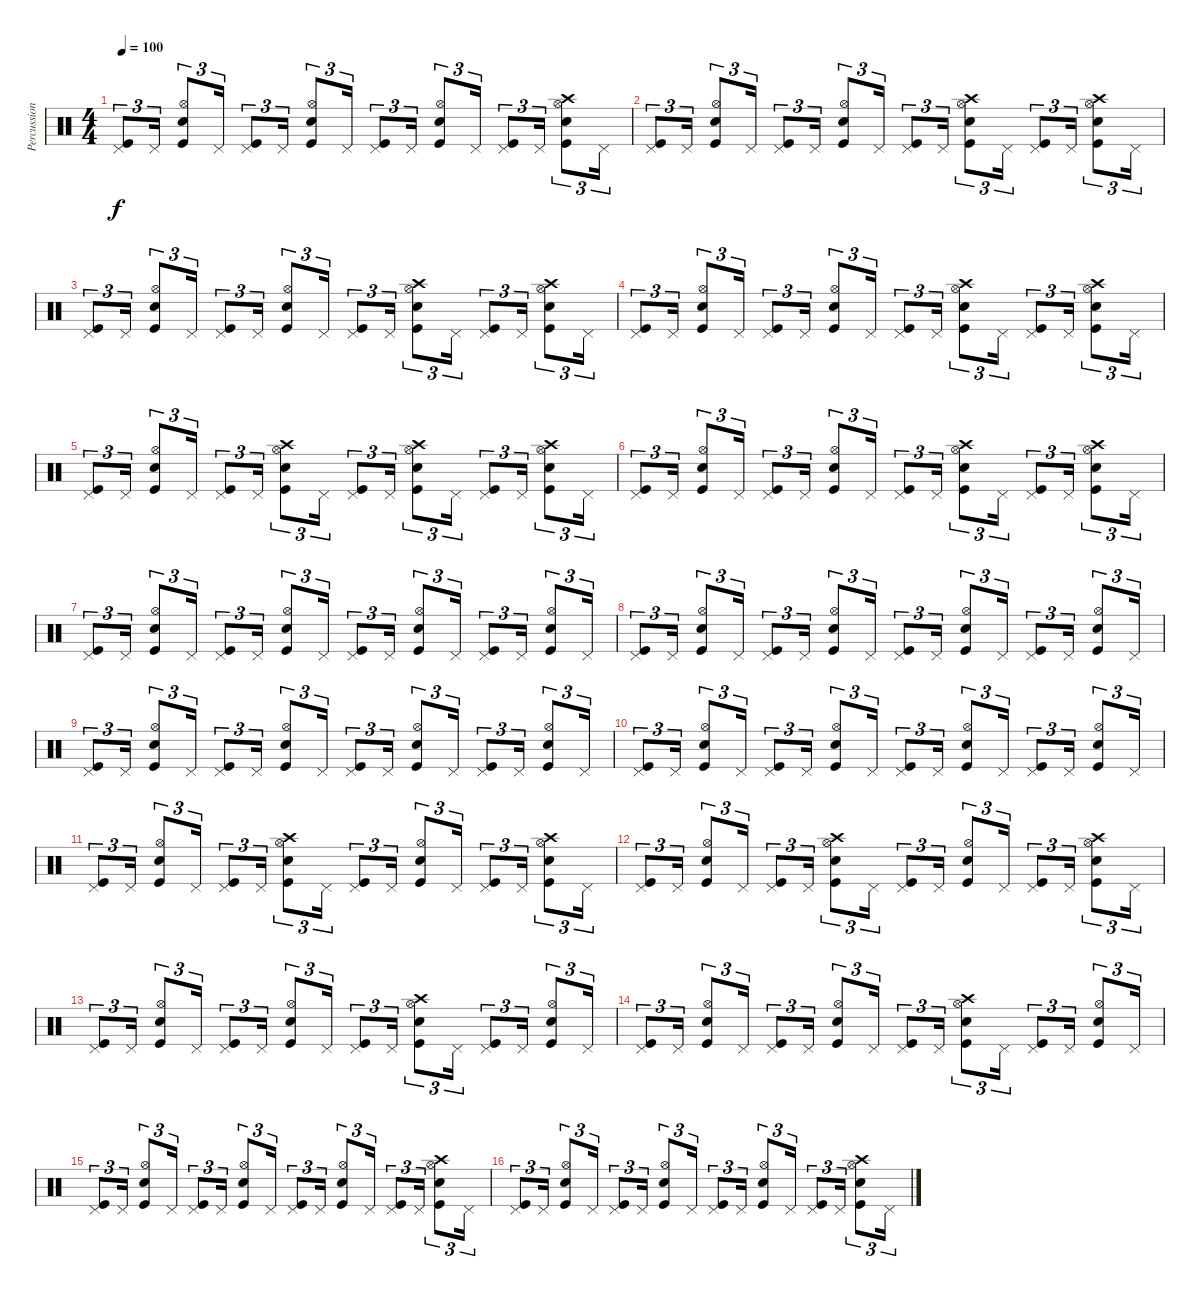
\track ("Percussion" "Percussion") {instrument percussion}
\staff {score}
\articulation defaults
\ts (4 4)
\tempo 100
\clef neutral
\ks c
("Pedal Hi-Hat (hit)" "Kick (hit)").8{tu (3 2) dy f} "Pedal Hi-Hat (hit)".16{tu (3 2)} ("Hi-Hat (open)" "Electric Snare (hit)" "Kick (hit)").8{tu (3 2)} "Pedal Hi-Hat (hit)".16{tu (3 2)} ("Pedal Hi-Hat (hit)" "Kick (hit)").8{tu (3 2)} "Pedal Hi-Hat (hit)".16{tu (3 2)} ("Hi-Hat (open)" "Electric Snare (hit)" "Kick (hit)").8{tu (3 2)} "Pedal Hi-Hat (hit)".16{tu (3 2)} ("Pedal Hi-Hat (hit)" "Kick (hit)").8{tu (3 2)} "Pedal Hi-Hat (hit)".16{tu (3 2)} ("Hi-Hat (open)" "Electric Snare (hit)" "Kick (hit)").8{tu (3 2)} "Pedal Hi-Hat (hit)".16{tu (3 2)} ("Pedal Hi-Hat (hit)" "Kick (hit)").8{tu (3 2)} "Pedal Hi-Hat (hit)".16{tu (3 2)} ("Crash high (hit)" "Hi-Hat (open)" "Electric Snare (hit)" "Kick (hit)").8{tu (3 2)} "Pedal Hi-Hat (hit)".16{tu (3 2)} |
("Pedal Hi-Hat (hit)" "Kick (hit)").8{tu (3 2)} "Pedal Hi-Hat (hit)".16{tu (3 2)} ("Hi-Hat (open)" "Electric Snare (hit)" "Kick (hit)").8{tu (3 2)} "Pedal Hi-Hat (hit)".16{tu (3 2)} ("Pedal Hi-Hat (hit)" "Kick (hit)").8{tu (3 2)} "Pedal Hi-Hat (hit)".16{tu (3 2)} ("Hi-Hat (open)" "Electric Snare (hit)" "Kick (hit)").8{tu (3 2)} "Pedal Hi-Hat (hit)".16{tu (3 2)} ("Pedal Hi-Hat (hit)" "Kick (hit)").8{tu (3 2)} "Pedal Hi-Hat (hit)".16{tu (3 2)} ("Crash high (hit)" "Hi-Hat (open)" "Electric Snare (hit)" "Kick (hit)").8{tu (3 2)} "Pedal Hi-Hat (hit)".16{tu (3 2)} ("Pedal Hi-Hat (hit)" "Kick (hit)").8{tu (3 2)} "Pedal Hi-Hat (hit)".16{tu (3 2)} ("Crash high (hit)" "Hi-Hat (open)" "Electric Snare (hit)" "Kick (hit)").8{tu (3 2)} "Pedal Hi-Hat (hit)".16{tu (3 2)} |
("Pedal Hi-Hat (hit)" "Kick (hit)").8{tu (3 2)} "Pedal Hi-Hat (hit)".16{tu (3 2)} ("Hi-Hat (open)" "Electric Snare (hit)" "Kick (hit)").8{tu (3 2)} "Pedal Hi-Hat (hit)".16{tu (3 2)} ("Pedal Hi-Hat (hit)" "Kick (hit)").8{tu (3 2)} "Pedal Hi-Hat (hit)".16{tu (3 2)} ("Hi-Hat (open)" "Electric Snare (hit)" "Kick (hit)").8{tu (3 2)} "Pedal Hi-Hat (hit)".16{tu (3 2)} ("Pedal Hi-Hat (hit)" "Kick (hit)").8{tu (3 2)} "Pedal Hi-Hat (hit)".16{tu (3 2)} ("Crash high (hit)" "Hi-Hat (open)" "Electric Snare (hit)" "Kick (hit)").8{tu (3 2)} "Pedal Hi-Hat (hit)".16{tu (3 2)} ("Pedal Hi-Hat (hit)" "Kick (hit)").8{tu (3 2)} "Pedal Hi-Hat (hit)".16{tu (3 2)} ("Crash high (hit)" "Hi-Hat (open)" "Electric Snare (hit)" "Kick (hit)").8{tu (3 2)} "Pedal Hi-Hat (hit)".16{tu (3 2)} |
("Pedal Hi-Hat (hit)" "Kick (hit)").8{tu (3 2)} "Pedal Hi-Hat (hit)".16{tu (3 2)} ("Hi-Hat (open)" "Electric Snare (hit)" "Kick (hit)").8{tu (3 2)} "Pedal Hi-Hat (hit)".16{tu (3 2)} ("Pedal Hi-Hat (hit)" "Kick (hit)").8{tu (3 2)} "Pedal Hi-Hat (hit)".16{tu (3 2)} ("Hi-Hat (open)" "Electric Snare (hit)" "Kick (hit)").8{tu (3 2)} "Pedal Hi-Hat (hit)".16{tu (3 2)} ("Pedal Hi-Hat (hit)" "Kick (hit)").8{tu (3 2)} "Pedal Hi-Hat (hit)".16{tu (3 2)} ("Crash high (hit)" "Hi-Hat (open)" "Electric Snare (hit)" "Kick (hit)").8{tu (3 2)} "Pedal Hi-Hat (hit)".16{tu (3 2)} ("Pedal Hi-Hat (hit)" "Kick (hit)").8{tu (3 2)} "Pedal Hi-Hat (hit)".16{tu (3 2)} ("Crash high (hit)" "Hi-Hat (open)" "Electric Snare (hit)" "Kick (hit)").8{tu (3 2)} "Pedal Hi-Hat (hit)".16{tu (3 2)} |
("Pedal Hi-Hat (hit)" "Kick (hit)").8{tu (3 2)} "Pedal Hi-Hat (hit)".16{tu (3 2)} ("Hi-Hat (open)" "Electric Snare (hit)" "Kick (hit)").8{tu (3 2)} "Pedal Hi-Hat (hit)".16{tu (3 2)} ("Pedal Hi-Hat (hit)" "Kick (hit)").8{tu (3 2)} "Pedal Hi-Hat (hit)".16{tu (3 2)} ("Crash high (hit)" "Hi-Hat (open)" "Electric Snare (hit)" "Kick (hit)").8{tu (3 2)} "Pedal Hi-Hat (hit)".16{tu (3 2)} ("Pedal Hi-Hat (hit)" "Kick (hit)").8{tu (3 2)} "Pedal Hi-Hat (hit)".16{tu (3 2)} ("Crash high (hit)" "Hi-Hat (open)" "Electric Snare (hit)" "Kick (hit)").8{tu (3 2)} "Pedal Hi-Hat (hit)".16{tu (3 2)} ("Pedal Hi-Hat (hit)" "Kick (hit)").8{tu (3 2)} "Pedal Hi-Hat (hit)".16{tu (3 2)} ("Crash high (hit)" "Hi-Hat (open)" "Electric Snare (hit)" "Kick (hit)").8{tu (3 2)} "Pedal Hi-Hat (hit)".16{tu (3 2)} |
("Pedal Hi-Hat (hit)" "Kick (hit)").8{tu (3 2)} "Pedal Hi-Hat (hit)".16{tu (3 2)} ("Hi-Hat (open)" "Electric Snare (hit)" "Kick (hit)").8{tu (3 2)} "Pedal Hi-Hat (hit)".16{tu (3 2)} ("Pedal Hi-Hat (hit)" "Kick (hit)").8{tu (3 2)} "Pedal Hi-Hat (hit)".16{tu (3 2)} ("Hi-Hat (open)" "Electric Snare (hit)" "Kick (hit)").8{tu (3 2)} "Pedal Hi-Hat (hit)".16{tu (3 2)} ("Pedal Hi-Hat (hit)" "Kick (hit)").8{tu (3 2)} "Pedal Hi-Hat (hit)".16{tu (3 2)} ("Crash high (hit)" "Hi-Hat (open)" "Electric Snare (hit)" "Kick (hit)").8{tu (3 2)} "Pedal Hi-Hat (hit)".16{tu (3 2)} ("Pedal Hi-Hat (hit)" "Kick (hit)").8{tu (3 2)} "Pedal Hi-Hat (hit)".16{tu (3 2)} ("Crash high (hit)" "Hi-Hat (open)" "Electric Snare (hit)" "Kick (hit)").8{tu (3 2)} "Pedal Hi-Hat (hit)".16{tu (3 2)} |
("Pedal Hi-Hat (hit)" "Kick (hit)").8{tu (3 2)} "Pedal Hi-Hat (hit)".16{tu (3 2)} ("Hi-Hat (open)" "Electric Snare (hit)" "Kick (hit)").8{tu (3 2)} "Pedal Hi-Hat (hit)".16{tu (3 2)} ("Pedal Hi-Hat (hit)" "Kick (hit)").8{tu (3 2)} "Pedal Hi-Hat (hit)".16{tu (3 2)} ("Hi-Hat (open)" "Electric Snare (hit)" "Kick (hit)").8{tu (3 2)} "Pedal Hi-Hat (hit)".16{tu (3 2)} ("Pedal Hi-Hat (hit)" "Kick (hit)").8{tu (3 2)} "Pedal Hi-Hat (hit)".16{tu (3 2)} ("Hi-Hat (open)" "Electric Snare (hit)" "Kick (hit)").8{tu (3 2)} "Pedal Hi-Hat (hit)".16{tu (3 2)} ("Pedal Hi-Hat (hit)" "Kick (hit)").8{tu (3 2)} "Pedal Hi-Hat (hit)".16{tu (3 2)} ("Hi-Hat (open)" "Electric Snare (hit)" "Kick (hit)").8{tu (3 2)} "Pedal Hi-Hat (hit)".16{tu (3 2)} |
("Pedal Hi-Hat (hit)" "Kick (hit)").8{tu (3 2)} "Pedal Hi-Hat (hit)".16{tu (3 2)} ("Hi-Hat (open)" "Electric Snare (hit)" "Kick (hit)").8{tu (3 2)} "Pedal Hi-Hat (hit)".16{tu (3 2)} ("Pedal Hi-Hat (hit)" "Kick (hit)").8{tu (3 2)} "Pedal Hi-Hat (hit)".16{tu (3 2)} ("Hi-Hat (open)" "Electric Snare (hit)" "Kick (hit)").8{tu (3 2)} "Pedal Hi-Hat (hit)".16{tu (3 2)} ("Pedal Hi-Hat (hit)" "Kick (hit)").8{tu (3 2)} "Pedal Hi-Hat (hit)".16{tu (3 2)} ("Hi-Hat (open)" "Electric Snare (hit)" "Kick (hit)").8{tu (3 2)} "Pedal Hi-Hat (hit)".16{tu (3 2)} ("Pedal Hi-Hat (hit)" "Kick (hit)").8{tu (3 2)} "Pedal Hi-Hat (hit)".16{tu (3 2)} ("Hi-Hat (open)" "Electric Snare (hit)" "Kick (hit)").8{tu (3 2)} "Pedal Hi-Hat (hit)".16{tu (3 2)} |
("Pedal Hi-Hat (hit)" "Kick (hit)").8{tu (3 2)} "Pedal Hi-Hat (hit)".16{tu (3 2)} ("Hi-Hat (open)" "Electric Snare (hit)" "Kick (hit)").8{tu (3 2)} "Pedal Hi-Hat (hit)".16{tu (3 2)} ("Pedal Hi-Hat (hit)" "Kick (hit)").8{tu (3 2)} "Pedal Hi-Hat (hit)".16{tu (3 2)} ("Hi-Hat (open)" "Electric Snare (hit)" "Kick (hit)").8{tu (3 2)} "Pedal Hi-Hat (hit)".16{tu (3 2)} ("Pedal Hi-Hat (hit)" "Kick (hit)").8{tu (3 2)} "Pedal Hi-Hat (hit)".16{tu (3 2)} ("Hi-Hat (open)" "Electric Snare (hit)" "Kick (hit)").8{tu (3 2)} "Pedal Hi-Hat (hit)".16{tu (3 2)} ("Pedal Hi-Hat (hit)" "Kick (hit)").8{tu (3 2)} "Pedal Hi-Hat (hit)".16{tu (3 2)} ("Hi-Hat (open)" "Electric Snare (hit)" "Kick (hit)").8{tu (3 2)} "Pedal Hi-Hat (hit)".16{tu (3 2)} |
("Pedal Hi-Hat (hit)" "Kick (hit)").8{tu (3 2)} "Pedal Hi-Hat (hit)".16{tu (3 2)} ("Hi-Hat (open)" "Electric Snare (hit)" "Kick (hit)").8{tu (3 2)} "Pedal Hi-Hat (hit)".16{tu (3 2)} ("Pedal Hi-Hat (hit)" "Kick (hit)").8{tu (3 2)} "Pedal Hi-Hat (hit)".16{tu (3 2)} ("Hi-Hat (open)" "Electric Snare (hit)" "Kick (hit)").8{tu (3 2)} "Pedal Hi-Hat (hit)".16{tu (3 2)} ("Pedal Hi-Hat (hit)" "Kick (hit)").8{tu (3 2)} "Pedal Hi-Hat (hit)".16{tu (3 2)} ("Hi-Hat (open)" "Electric Snare (hit)" "Kick (hit)").8{tu (3 2)} "Pedal Hi-Hat (hit)".16{tu (3 2)} ("Pedal Hi-Hat (hit)" "Kick (hit)").8{tu (3 2)} "Pedal Hi-Hat (hit)".16{tu (3 2)} ("Hi-Hat (open)" "Electric Snare (hit)" "Kick (hit)").8{tu (3 2)} "Pedal Hi-Hat (hit)".16{tu (3 2)} |
("Pedal Hi-Hat (hit)" "Kick (hit)").8{tu (3 2)} "Pedal Hi-Hat (hit)".16{tu (3 2)} ("Hi-Hat (open)" "Electric Snare (hit)" "Kick (hit)").8{tu (3 2)} "Pedal Hi-Hat (hit)".16{tu (3 2)} ("Pedal Hi-Hat (hit)" "Kick (hit)").8{tu (3 2)} "Pedal Hi-Hat (hit)".16{tu (3 2)} ("Crash high (hit)" "Hi-Hat (open)" "Electric Snare (hit)" "Kick (hit)").8{tu (3 2)} "Pedal Hi-Hat (hit)".16{tu (3 2)} ("Pedal Hi-Hat (hit)" "Kick (hit)").8{tu (3 2)} "Pedal Hi-Hat (hit)".16{tu (3 2)} ("Hi-Hat (open)" "Electric Snare (hit)" "Kick (hit)").8{tu (3 2)} "Pedal Hi-Hat (hit)".16{tu (3 2)} ("Pedal Hi-Hat (hit)" "Kick (hit)").8{tu (3 2)} "Pedal Hi-Hat (hit)".16{tu (3 2)} ("Crash high (hit)" "Hi-Hat (open)" "Electric Snare (hit)" "Kick (hit)").8{tu (3 2)} "Pedal Hi-Hat (hit)".16{tu (3 2)} |
("Pedal Hi-Hat (hit)" "Kick (hit)").8{tu (3 2)} "Pedal Hi-Hat (hit)".16{tu (3 2)} ("Hi-Hat (open)" "Electric Snare (hit)" "Kick (hit)").8{tu (3 2)} "Pedal Hi-Hat (hit)".16{tu (3 2)} ("Pedal Hi-Hat (hit)" "Kick (hit)").8{tu (3 2)} "Pedal Hi-Hat (hit)".16{tu (3 2)} ("Crash high (hit)" "Hi-Hat (open)" "Electric Snare (hit)" "Kick (hit)").8{tu (3 2)} "Pedal Hi-Hat (hit)".16{tu (3 2)} ("Pedal Hi-Hat (hit)" "Kick (hit)").8{tu (3 2)} "Pedal Hi-Hat (hit)".16{tu (3 2)} ("Hi-Hat (open)" "Electric Snare (hit)" "Kick (hit)").8{tu (3 2)} "Pedal Hi-Hat (hit)".16{tu (3 2)} ("Pedal Hi-Hat (hit)" "Kick (hit)").8{tu (3 2)} "Pedal Hi-Hat (hit)".16{tu (3 2)} ("Crash high (hit)" "Hi-Hat (open)" "Electric Snare (hit)" "Kick (hit)").8{tu (3 2)} "Pedal Hi-Hat (hit)".16{tu (3 2)} |
("Pedal Hi-Hat (hit)" "Kick (hit)").8{tu (3 2)} "Pedal Hi-Hat (hit)".16{tu (3 2)} ("Hi-Hat (open)" "Electric Snare (hit)" "Kick (hit)").8{tu (3 2)} "Pedal Hi-Hat (hit)".16{tu (3 2)} ("Pedal Hi-Hat (hit)" "Kick (hit)").8{tu (3 2)} "Pedal Hi-Hat (hit)".16{tu (3 2)} ("Hi-Hat (open)" "Electric Snare (hit)" "Kick (hit)").8{tu (3 2)} "Pedal Hi-Hat (hit)".16{tu (3 2)} ("Pedal Hi-Hat (hit)" "Kick (hit)").8{tu (3 2)} "Pedal Hi-Hat (hit)".16{tu (3 2)} ("Crash high (hit)" "Hi-Hat (open)" "Electric Snare (hit)" "Kick (hit)").8{tu (3 2)} "Pedal Hi-Hat (hit)".16{tu (3 2)} ("Pedal Hi-Hat (hit)" "Kick (hit)").8{tu (3 2)} "Pedal Hi-Hat (hit)".16{tu (3 2)} ("Hi-Hat (open)" "Electric Snare (hit)" "Kick (hit)").8{tu (3 2)} "Pedal Hi-Hat (hit)".16{tu (3 2)} |
("Pedal Hi-Hat (hit)" "Kick (hit)").8{tu (3 2)} "Pedal Hi-Hat (hit)".16{tu (3 2)} ("Hi-Hat (open)" "Electric Snare (hit)" "Kick (hit)").8{tu (3 2)} "Pedal Hi-Hat (hit)".16{tu (3 2)} ("Pedal Hi-Hat (hit)" "Kick (hit)").8{tu (3 2)} "Pedal Hi-Hat (hit)".16{tu (3 2)} ("Hi-Hat (open)" "Electric Snare (hit)" "Kick (hit)").8{tu (3 2)} "Pedal Hi-Hat (hit)".16{tu (3 2)} ("Pedal Hi-Hat (hit)" "Kick (hit)").8{tu (3 2)} "Pedal Hi-Hat (hit)".16{tu (3 2)} ("Crash high (hit)" "Hi-Hat (open)" "Electric Snare (hit)" "Kick (hit)").8{tu (3 2)} "Pedal Hi-Hat (hit)".16{tu (3 2)} ("Pedal Hi-Hat (hit)" "Kick (hit)").8{tu (3 2)} "Pedal Hi-Hat (hit)".16{tu (3 2)} ("Hi-Hat (open)" "Electric Snare (hit)" "Kick (hit)").8{tu (3 2)} "Pedal Hi-Hat (hit)".16{tu (3 2)} |
("Pedal Hi-Hat (hit)" "Kick (hit)").8{tu (3 2)} "Pedal Hi-Hat (hit)".16{tu (3 2)} ("Hi-Hat (open)" "Electric Snare (hit)" "Kick (hit)").8{tu (3 2)} "Pedal Hi-Hat (hit)".16{tu (3 2)} ("Pedal Hi-Hat (hit)" "Kick (hit)").8{tu (3 2)} "Pedal Hi-Hat (hit)".16{tu (3 2)} ("Hi-Hat (open)" "Electric Snare (hit)" "Kick (hit)").8{tu (3 2)} "Pedal Hi-Hat (hit)".16{tu (3 2)} ("Pedal Hi-Hat (hit)" "Kick (hit)").8{tu (3 2)} "Pedal Hi-Hat (hit)".16{tu (3 2)} ("Hi-Hat (open)" "Electric Snare (hit)" "Kick (hit)").8{tu (3 2)} "Pedal Hi-Hat (hit)".16{tu (3 2)} ("Pedal Hi-Hat (hit)" "Kick (hit)").8{tu (3 2)} "Pedal Hi-Hat (hit)".16{tu (3 2)} ("Crash high (hit)" "Hi-Hat (open)" "Electric Snare (hit)" "Kick (hit)").8{tu (3 2)} "Pedal Hi-Hat (hit)".16{tu (3 2)} |
("Pedal Hi-Hat (hit)" "Kick (hit)").8{tu (3 2)} "Pedal Hi-Hat (hit)".16{tu (3 2)} ("Hi-Hat (open)" "Electric Snare (hit)" "Kick (hit)").8{tu (3 2)} "Pedal Hi-Hat (hit)".16{tu (3 2)} ("Pedal Hi-Hat (hit)" "Kick (hit)").8{tu (3 2)} "Pedal Hi-Hat (hit)".16{tu (3 2)} ("Hi-Hat (open)" "Electric Snare (hit)" "Kick (hit)").8{tu (3 2)} "Pedal Hi-Hat (hit)".16{tu (3 2)} ("Pedal Hi-Hat (hit)" "Kick (hit)").8{tu (3 2)} "Pedal Hi-Hat (hit)".16{tu (3 2)} ("Hi-Hat (open)" "Electric Snare (hit)" "Kick (hit)").8{tu (3 2)} "Pedal Hi-Hat (hit)".16{tu (3 2)} ("Pedal Hi-Hat (hit)" "Kick (hit)").8{tu (3 2)} "Pedal Hi-Hat (hit)".16{tu (3 2)} ("Crash high (hit)" "Hi-Hat (open)" "Electric Snare (hit)" "Kick (hit)").8{tu (3 2)} "Pedal Hi-Hat (hit)".16{tu (3 2)}
